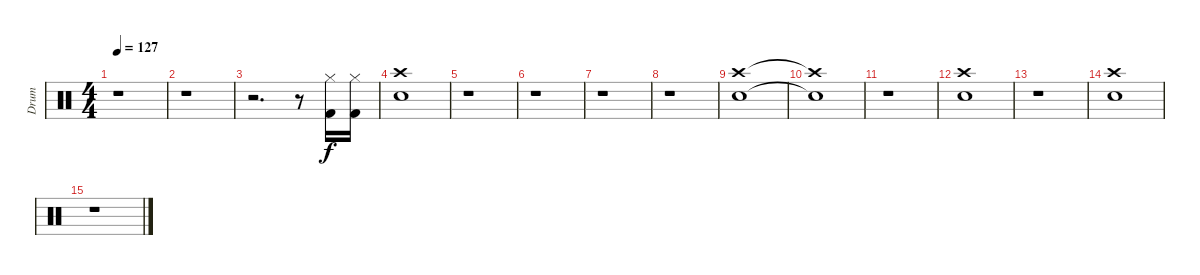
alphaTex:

\track ("Drum" "Drum") {instrument percussion}
\staff {score}
\articulation defaults
\ts (4 4)
\tempo 127
\clef neutral
\ks c
r.1{dy f} |
r.1 |
r.2{d} r.8 ("Kick (hit) 2" "Hi-Hat (closed)").16 ("Kick (hit) 2" "Hi-Hat (closed)").16 |
("Crash high (hit)" "Electric Snare (hit)").1 |
r.1 |
r.1 |
r.1 |
r.1 |
("Crash high (hit)" "Electric Snare (hit)").1 |
("Crash high (hit)"{t} "Electric Snare (hit)"{t}).1 |
r.1 |
("Crash high (hit)" "Electric Snare (hit)").1 |
r.1 |
("Crash high (hit)" "Electric Snare (hit)").1 |
r.1
